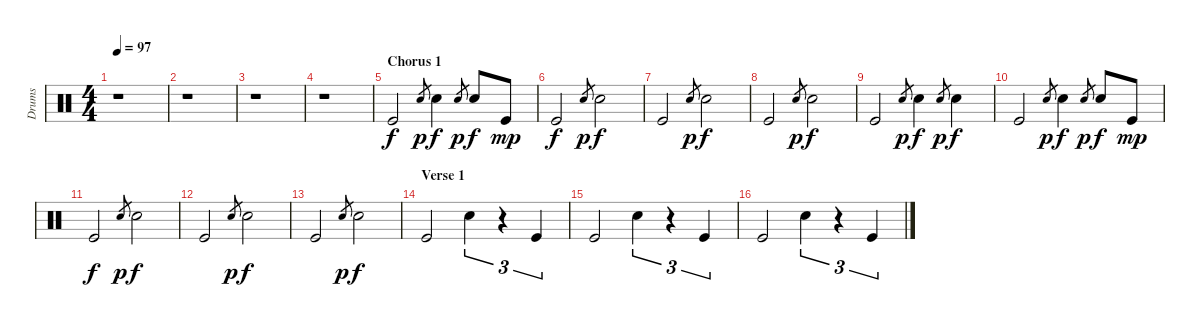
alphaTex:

\track ("Drums" "Drums") {instrument percussion}
\staff {score}
\articulation defaults
\ts (4 4)
\tempo 97
\clef neutral
\ks c
r.1{dy f} |
r.1 |
r.1 |
r.1 |
\section ("" "Chorus 1")
"Kick (hit)".2 "Snare (hit) 2".8{gr dy p} "Snare (hit) 2".4{dy f} "Snare (hit) 2".8{gr dy p} "Snare (hit) 2".8{dy f} "Kick (hit)".8{dy mp} |
"Kick (hit)".2{dy f} "Snare (hit) 2".8{gr dy p} "Snare (hit) 2".2{dy f} |
"Kick (hit)".2 "Snare (hit) 2".8{gr dy p} "Snare (hit) 2".2{dy f} |
"Kick (hit)".2 "Snare (hit) 2".8{gr dy p} "Snare (hit) 2".2{dy f} |
"Kick (hit)".2 "Snare (hit) 2".8{gr dy p} "Snare (hit) 2".4{dy f} "Snare (hit) 2".8{gr dy p} "Snare (hit) 2".4{dy f} |
"Kick (hit)".2 "Snare (hit) 2".8{gr dy p} "Snare (hit) 2".4{dy f} "Snare (hit) 2".8{gr dy p} "Snare (hit) 2".8{dy f} "Kick (hit)".8{dy mp} |
"Kick (hit)".2{dy f} "Snare (hit) 2".8{gr dy p} "Snare (hit) 2".2{dy f} |
"Kick (hit)".2 "Snare (hit) 2".8{gr dy p} "Snare (hit) 2".2{dy f} |
"Kick (hit)".2 "Snare (hit) 2".8{gr dy p} "Snare (hit) 2".2{dy f} |
\section ("" "Verse 1")
"Kick (hit)".2 "Snare (hit) 2".4{tu (3 2)} r.4{tu (3 2)} "Kick (hit)".4{tu (3 2)} |
"Kick (hit)".2 "Snare (hit) 2".4{tu (3 2)} r.4{tu (3 2)} "Kick (hit)".4{tu (3 2)} |
"Kick (hit)".2 "Snare (hit) 2".4{tu (3 2)} r.4{tu (3 2)} "Kick (hit)".4{tu (3 2)}
